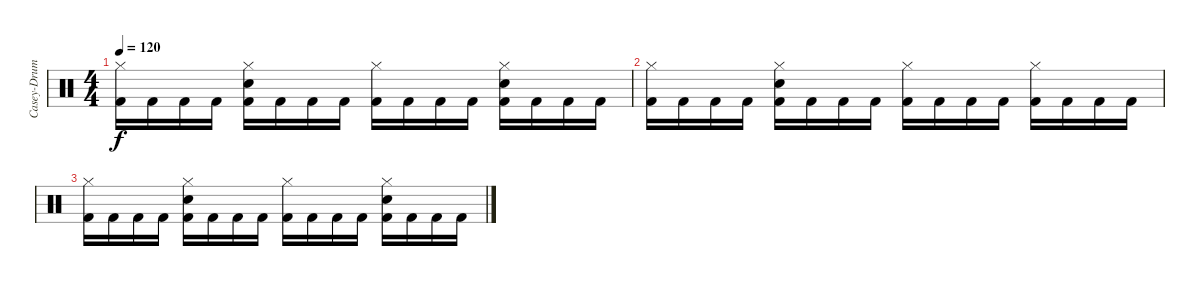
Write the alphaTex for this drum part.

\track ("Casey-Drums" "Casey-Drum") {instrument percussion}
\staff {score}
\articulation defaults
\ts (4 4)
\tempo 120
\clef neutral
\ks c
("Hi-Hat (closed)" "Kick (hit) 2").16{dy f} "Kick (hit) 2".16 "Kick (hit) 2".16 "Kick (hit) 2".16 ("Hi-Hat (closed)" "Electric Snare (hit)" "Kick (hit) 2").16 "Kick (hit) 2".16 "Kick (hit) 2".16 "Kick (hit) 2".16 ("Hi-Hat (closed)" "Kick (hit) 2").16 "Kick (hit) 2".16 "Kick (hit) 2".16 "Kick (hit) 2".16 ("Hi-Hat (closed)" "Electric Snare (hit)" "Kick (hit) 2").16 "Kick (hit) 2".16 "Kick (hit) 2".16 "Kick (hit) 2".16 |
("Hi-Hat (closed)" "Kick (hit) 2").16 "Kick (hit) 2".16 "Kick (hit) 2".16 "Kick (hit) 2".16 ("Hi-Hat (closed)" "Electric Snare (hit)" "Kick (hit) 2").16 "Kick (hit) 2".16 "Kick (hit) 2".16 "Kick (hit) 2".16 ("Hi-Hat (closed)" "Kick (hit) 2").16 "Kick (hit) 2".16 "Kick (hit) 2".16 "Kick (hit) 2".16 ("Hi-Hat (closed)" "Kick (hit) 2").16 "Kick (hit) 2".16 "Kick (hit) 2".16 "Kick (hit) 2".16 |
("Hi-Hat (closed)" "Kick (hit) 2").16 "Kick (hit) 2".16 "Kick (hit) 2".16 "Kick (hit) 2".16 ("Hi-Hat (closed)" "Electric Snare (hit)" "Kick (hit) 2").16 "Kick (hit) 2".16 "Kick (hit) 2".16 "Kick (hit) 2".16 ("Hi-Hat (closed)" "Kick (hit) 2").16 "Kick (hit) 2".16 "Kick (hit) 2".16 "Kick (hit) 2".16 ("Hi-Hat (closed)" "Electric Snare (hit)" "Kick (hit) 2").16 "Kick (hit) 2".16 "Kick (hit) 2".16 "Kick (hit) 2".16
